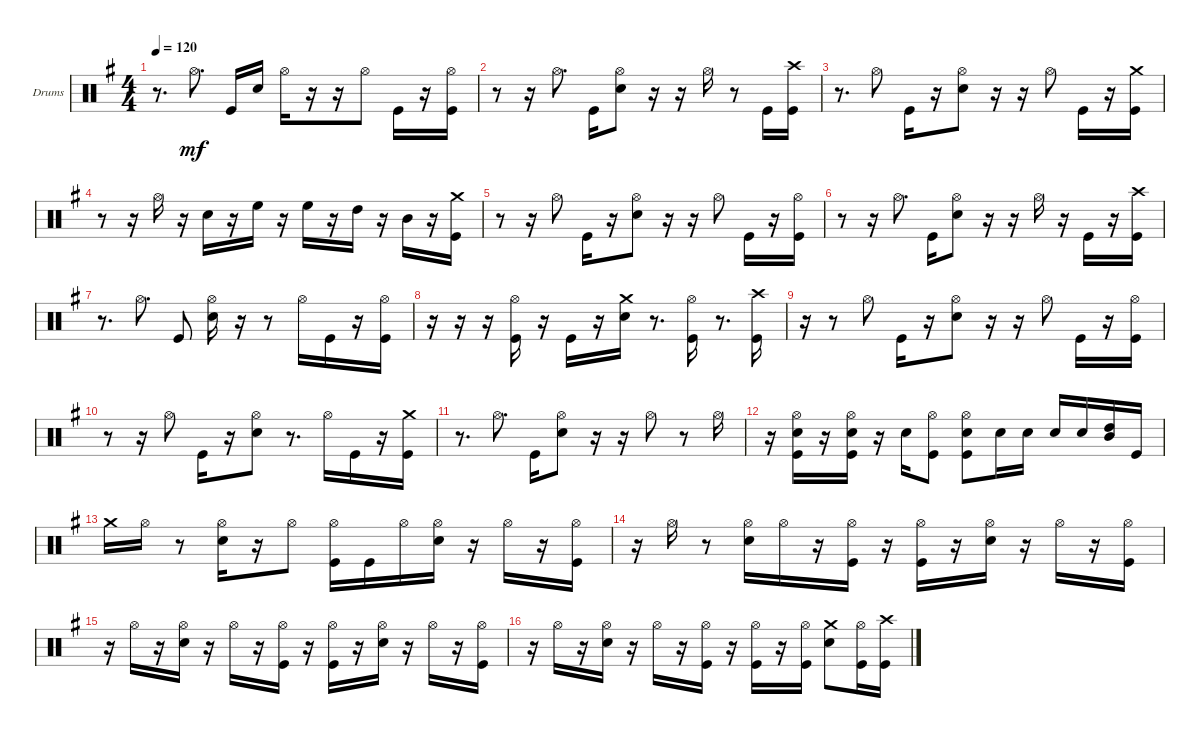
\bracketExtendMode groupsimilarinstruments
\firstSystemTrackNameOrientation horizontal
\otherSystemsTrackNameOrientation horizontal
\track ("Drumkit" "Drums") {multiBarRest instrument percussion}
\staff {score}
\articulation defaults
\ts (4 4)
\tempo 120
\clef neutral
\scale
0.333333
\ks g
r.8{d dy mf} "Hi-Hat (open)".8{d} "Kick (hit)".16 "Snare (hit) 2".16 "Hi-Hat (open)".16 r.16 r.16 "Hi-Hat (open)".8 "Kick (hit)".16 r.16 ("Kick (hit)" "Hi-Hat (open)").16 |
\scale
0.333333 r.8 r.16 "Hi-Hat (open)".8{d} "Kick (hit)".16 ("Snare (hit) 2" "Hi-Hat (open)").8 r.16 r.16 "Hi-Hat (open)".16 r.8 "Kick (hit)".16 ("Crash high (hit)" "Kick (hit)").16 |
\scale
0.333333 r.8{d} "Hi-Hat (open)".8 "Kick (hit)".16 r.16 ("Hi-Hat (open)" "Snare (hit) 2").8 r.16 r.16 "Hi-Hat (open)".8 "Kick (hit)".16 r.16 ("Kick (hit)" "Crash medium (hit)").16 |
\scale
0.333333 r.8 r.16 "Hi-Hat (open)".16 r.16 "Snare (hit) 2".16 r.16 "High Floor Tom (hit)".16 r.16 "High Floor Tom (hit)".16 r.16 "High Tom (hit)".16 r.16 "Mid Tom (hit)".16 r.16 ("Crash medium (hit)" "Kick (hit)").16 |
\scale
0.333333 r.8 r.16 "Hi-Hat (open)".8 "Kick (hit)".16 r.16 ("Hi-Hat (open)" "Snare (hit) 2").8 r.16 r.16 "Hi-Hat (open)".8 "Kick (hit)".16 r.16 ("Hi-Hat (open)" "Kick (hit)").16 |
\scale
0.333333 r.8 r.16 "Hi-Hat (open)".8{d} "Kick (hit)".16 ("Hi-Hat (open)" "Snare (hit) 2").8 r.16 r.16 "Hi-Hat (open)".16 r.16 "Kick (hit)".16 r.16 ("Kick (hit)" "Crash high (hit)").16 |
\scale
0.333333 r.8{d} "Hi-Hat (open)".8{d} "Kick (hit)".8 ("Snare (hit) 2" "Hi-Hat (open)").16 r.16 r.8 "Hi-Hat (open)".16 "Kick (hit)".16 r.16 ("Kick (hit)" "Hi-Hat (open)").16 |
\scale
0.333333 r.16 r.16 r.16 ("Hi-Hat (open)" "Kick (hit)").16 r.16 "Kick (hit)".16 r.16 ("Snare (hit) 2" "Crash medium (hit)").16 r.8{d} ("Kick (hit)" "Hi-Hat (open)").16 r.8{d} ("Crash high (hit)" "Kick (hit)").16 |
\scale
0.333333 r.16 r.8 "Hi-Hat (open)".8 "Kick (hit)".16 r.16 ("Hi-Hat (open)" "Snare (hit) 2").8 r.16 r.16 "Hi-Hat (open)".8 "Kick (hit)".16 r.16 ("Kick (hit)" "Hi-Hat (open)").16 |
\scale
0.333333 r.8 r.16 "Hi-Hat (open)".8 "Kick (hit)".16 r.16 ("Hi-Hat (open)" "Snare (hit) 2").8 r.8{d} "Hi-Hat (open)".16 "Kick (hit)".16 r.16 ("Crash medium (hit)" "Kick (hit)").16 |
\scale
0.333333 r.8{d} "Hi-Hat (open)".8{d} "Kick (hit)".16 ("Hi-Hat (open)" "Snare (hit) 2").8 r.16 r.16 "Hi-Hat (open)".8 r.8 "Hi-Hat (open)".16 |
\scale
0.333333 r.16 ("Hi-Hat (open)" "Snare (hit) 2" "Kick (hit)").16 r.16 ("Hi-Hat (open)" "Snare (hit) 2" "Kick (hit)").16 r.16 "Snare (hit) 2".16 ("Kick (hit)" "Hi-Hat (open)").8 ("Hi-Hat (open)" "Snare (hit) 2" "Kick (hit)").8 "Snare (hit) 2".16 "Snare (hit) 2".16 "Snare (hit) 2".16 "Snare (hit) 2".16 ("High Tom (hit)" "Mid Tom (hit)").16 "Kick (hit)".16 |
\scale
0.333333 "Crash medium (hit)".16 "Hi-Hat (open)".16 r.8 ("Snare (hit) 2" "Hi-Hat (open)").16 r.16 "Hi-Hat (open)".8 ("Kick (hit)" "Hi-Hat (open)").16 "Kick (hit)".16 "Hi-Hat (open)".16 ("Hi-Hat (open)" "Snare (hit) 2").16 r.16 "Hi-Hat (open)".16 r.16 ("Hi-Hat (open)" "Kick (hit)").16 |
\scale
0.333333 r.16 "Hi-Hat (open)".16 r.8 ("Hi-Hat (open)" "Snare (hit) 2").16 "Hi-Hat (open)".16 r.16 ("Kick (hit)" "Hi-Hat (open)").16 r.16 ("Kick (hit)" "Hi-Hat (open)").16 r.16 ("Snare (hit) 2" "Hi-Hat (open)").16 r.16 "Hi-Hat (open)".16 r.16 ("Hi-Hat (open)" "Kick (hit)").16 |
\scale
0.333333 r.16 "Hi-Hat (open)".16 r.16 ("Snare (hit) 2" "Hi-Hat (open)").16 r.16 "Hi-Hat (open)".16 r.16 ("Hi-Hat (open)" "Kick (hit)").16 r.16 ("Kick (hit)" "Hi-Hat (open)").16 r.16 ("Hi-Hat (open)" "Snare (hit) 2").16 r.16 "Hi-Hat (open)".16 r.16 ("Hi-Hat (open)" "Kick (hit)").16 |
\scale
0.333333 r.16 "Hi-Hat (open)".16 r.16 ("Hi-Hat (open)" "Snare (hit) 2").16 r.16 "Hi-Hat (open)".16 r.16 ("Hi-Hat (open)" "Kick (hit)").16 r.16 ("Kick (hit)" "Hi-Hat (open)").16 r.16 ("Kick (hit)" "Hi-Hat (open)").16 ("Crash medium (hit)" "Snare (hit) 2").8 ("Hi-Hat (open)" "Kick (hit)").16 ("Crash high (hit)" "Kick (hit)").16
